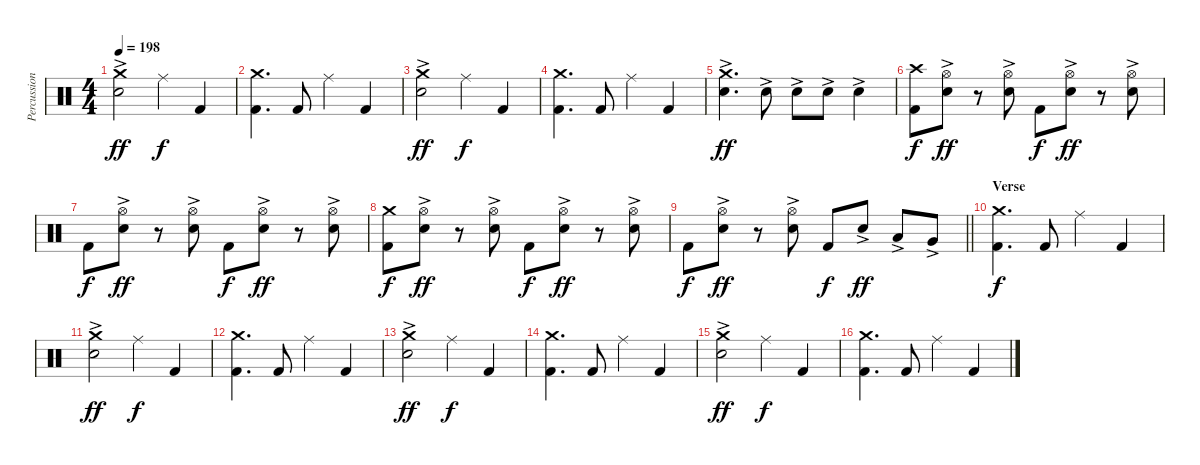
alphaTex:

\track ("Percussion" "Percussion") {instrument percussion}
\staff {score}
\articulation defaults
\ts (4 4)
\tempo 198
\clef neutral
\ks c
("Crash medium (hit)" "Electric Snare (hit)"{ac}).2{dy ff} "Ride (middle)".4{dy f} "Kick (hit) 2".4 |
("Crash medium (hit)" "Kick (hit) 2").4{d} "Kick (hit) 2".8 "Ride (middle)".4 "Kick (hit) 2".4 |
("Crash medium (hit)" "Electric Snare (hit)"{ac}).2{dy ff} "Ride (middle)".4{dy f} "Kick (hit) 2".4 |
("Crash medium (hit)" "Kick (hit) 2").4{d} "Kick (hit) 2".8 "Ride (middle)".4 "Kick (hit) 2".4 |
("Crash medium (hit)" "Electric Snare (hit)"{ac}).4{d dy ff} "Electric Snare (hit)"{ac}.8 "Electric Snare (hit)"{ac}.8 "Electric Snare (hit)"{ac}.8 "Electric Snare (hit)"{ac}.4 |
("Crash high (hit)" "Kick (hit) 2").8{dy f} ("Hi-Hat (open)" "Electric Snare (hit)"{ac}).8{dy ff} r.8 ("Hi-Hat (open)" "Electric Snare (hit)"{ac}).8 "Kick (hit) 2".8{dy f} ("Hi-Hat (open)" "Electric Snare (hit)"{ac}).8{dy ff} r.8 ("Hi-Hat (open)" "Electric Snare (hit)"{ac}).8 |
"Kick (hit) 2".8{dy f} ("Hi-Hat (open)" "Electric Snare (hit)"{ac}).8{dy ff} r.8 ("Hi-Hat (open)" "Electric Snare (hit)"{ac}).8 "Kick (hit) 2".8{dy f} ("Hi-Hat (open)" "Electric Snare (hit)"{ac}).8{dy ff} r.8 ("Hi-Hat (open)" "Electric Snare (hit)"{ac}).8 |
("Crash medium (hit)" "Kick (hit) 2").8{dy f} ("Hi-Hat (open)" "Electric Snare (hit)"{ac}).8{dy ff} r.8 ("Hi-Hat (open)" "Electric Snare (hit)"{ac}).8 "Kick (hit) 2".8{dy f} ("Hi-Hat (open)" "Electric Snare (hit)"{ac}).8{dy ff} r.8 ("Hi-Hat (open)" "Electric Snare (hit)"{ac}).8 |
\barLineRight lightlight "Kick (hit) 2".8{dy f}
("Hi-Hat (open)" "Electric Snare (hit)"{ac}).8{dy ff} r.8 ("Hi-Hat (open)" "Electric Snare (hit)"{ac}).8 "Kick (hit) 2".8{dy f} "Electric Snare (hit)"{ac}.8{dy ff} "Low Tom (hit)"{ac}.8 "Very Low Tom (hit)"{ac}.8 |
\section ("" "Verse")
("Crash medium (hit)" "Kick (hit) 2").4{d dy f} "Kick (hit) 2".8 "Ride (middle)".4 "Kick (hit) 2".4 |
("Crash medium (hit)" "Electric Snare (hit)"{ac}).2{dy ff} "Ride (middle)".4{dy f} "Kick (hit) 2".4 |
("Crash medium (hit)" "Kick (hit) 2").4{d} "Kick (hit) 2".8 "Ride (middle)".4 "Kick (hit) 2".4 |
("Crash medium (hit)" "Electric Snare (hit)"{ac}).2{dy ff} "Ride (middle)".4{dy f} "Kick (hit) 2".4 |
("Crash medium (hit)" "Kick (hit) 2").4{d} "Kick (hit) 2".8 "Ride (middle)".4 "Kick (hit) 2".4 |
("Crash medium (hit)" "Electric Snare (hit)"{ac}).2{dy ff} "Ride (middle)".4{dy f} "Kick (hit) 2".4 |
("Crash medium (hit)" "Kick (hit) 2").4{d} "Kick (hit) 2".8 "Ride (middle)".4 "Kick (hit) 2".4
